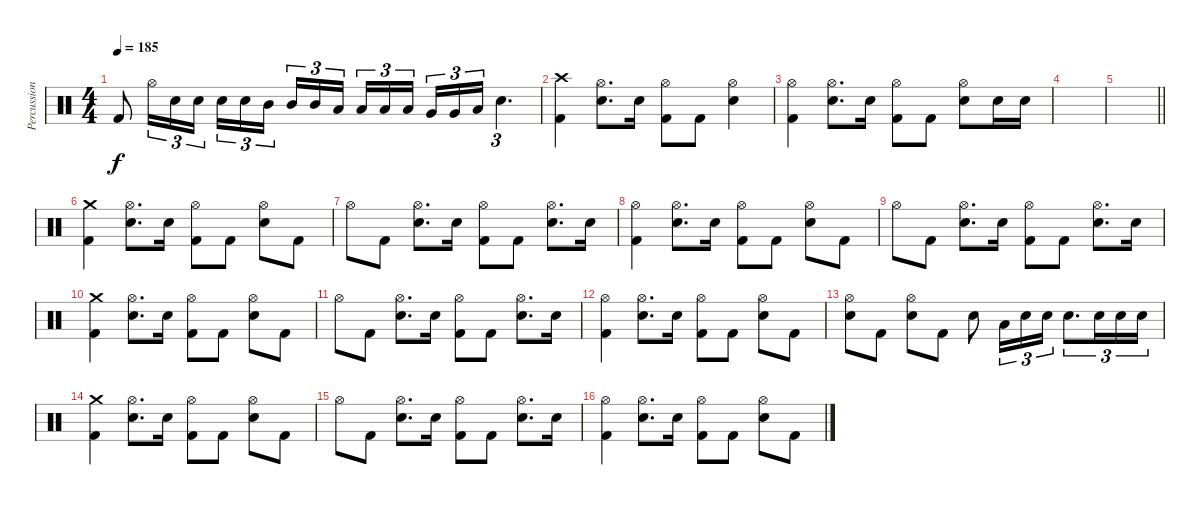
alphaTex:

\track ("Percussion" "Percussion") {instrument percussion}
\staff {score}
\articulation defaults
\ts (4 4)
\tempo 185
\clef neutral
\ks c "Kick (hit) 2".8{dy f} "Hi-Hat (open)".16{tu (3 2)} "Electric Snare (hit)".16{tu (3 2)} "Electric Snare (hit)".16{tu (3 2)} "Electric Snare (hit)".16{tu (3 2)} "Electric Snare (hit)".16{tu (3 2)} "Mid Tom (hit)".16{tu (3 2) beam splitsecondary} "Mid Tom (hit)".16{tu (3 2)} "Mid Tom (hit)".16{tu (3 2)} "Low Tom (hit)".16{tu (3 2)} "Low Tom (hit)".16{tu (3 2)} "Low Tom (hit)".16{tu (3 2)} "Low Tom (hit)".16{tu (3 2) beam splitsecondary} "Very Low Tom (hit)".16{tu (3 2)} "Very Low Tom (hit)".16{tu (3 2)} "Low Floor Tom (hit)".16{tu (3 2)} "Electric Snare (hit)".4{d tu (3 2)}
|
("Crash high (hit)" "Kick (hit) 2").4 ("Hi-Hat (open)" "Electric Snare (hit)").8{d} "Electric Snare (hit)".16 ("Hi-Hat (open)" "Kick (hit) 2").8 "Kick (hit) 2".8 ("Hi-Hat (open)" "Electric Snare (hit)").4 |
("Hi-Hat (open)" "Kick (hit) 2").4 ("Hi-Hat (open)" "Electric Snare (hit)").8{d} "Electric Snare (hit)".16 ("Hi-Hat (open)" "Kick (hit) 2").8 "Kick (hit) 2".8 ("Hi-Hat (open)" "Electric Snare (hit)").8 "Electric Snare (hit)".16 "Electric Snare (hit)".16 |
|
\barLineRight lightlight
|
("Crash medium (hit)" "Kick (hit) 2").4 ("Hi-Hat (open)" "Electric Snare (hit)").8{d} "Electric Snare (hit)".16 ("Hi-Hat (open)" "Kick (hit) 2").8 "Kick (hit) 2".8 ("Hi-Hat (open)" "Electric Snare (hit)").8 "Kick (hit) 2".8 |
"Hi-Hat (open)".8 "Kick (hit) 2".8 ("Hi-Hat (open)" "Electric Snare (hit)").8{d} "Electric Snare (hit)".16 ("Hi-Hat (open)" "Kick (hit) 2").8 "Kick (hit) 2".8 ("Hi-Hat (open)" "Electric Snare (hit)").8{d} "Electric Snare (hit)".16 |
("Hi-Hat (open)" "Kick (hit) 2").4 ("Hi-Hat (open)" "Electric Snare (hit)").8{d} "Electric Snare (hit)".16 ("Hi-Hat (open)" "Kick (hit) 2").8 "Kick (hit) 2".8 ("Hi-Hat (open)" "Electric Snare (hit)").8 "Kick (hit) 2".8 |
"Hi-Hat (open)".8 "Kick (hit) 2".8 ("Hi-Hat (open)" "Electric Snare (hit)").8{d} "Electric Snare (hit)".16 ("Hi-Hat (open)" "Kick (hit) 2").8 "Kick (hit) 2".8 ("Hi-Hat (open)" "Electric Snare (hit)").8{d} "Electric Snare (hit)".16 |
("Crash medium (hit)" "Kick (hit) 2").4 ("Hi-Hat (open)" "Electric Snare (hit)").8{d} "Electric Snare (hit)".16 ("Hi-Hat (open)" "Kick (hit) 2").8 "Kick (hit) 2".8 ("Hi-Hat (open)" "Electric Snare (hit)").8 "Kick (hit) 2".8 |
"Hi-Hat (open)".8 "Kick (hit) 2".8 ("Hi-Hat (open)" "Electric Snare (hit)").8{d} "Electric Snare (hit)".16 ("Hi-Hat (open)" "Kick (hit) 2").8 "Kick (hit) 2".8 ("Hi-Hat (open)" "Electric Snare (hit)").8{d} "Electric Snare (hit)".16 |
("Hi-Hat (open)" "Kick (hit) 2").4 ("Hi-Hat (open)" "Electric Snare (hit)").8{d} "Electric Snare (hit)".16 ("Hi-Hat (open)" "Kick (hit) 2").8 "Kick (hit) 2".8 ("Hi-Hat (open)" "Electric Snare (hit)").8 "Kick (hit) 2".8 |
("Hi-Hat (open)" "Electric Snare (hit)").8 "Kick (hit) 2".8 ("Hi-Hat (open)" "Electric Snare (hit)").8 "Kick (hit) 2".8 "Electric Snare (hit)".8 "Low Tom (hit)".16{tu (3 2)} "Electric Snare (hit)".16{tu (3 2)} "Electric Snare (hit)".16{tu (3 2)} "Electric Snare (hit)".8{d tu (3 2)} "Electric Snare (hit)".16{tu (3 2)} "Electric Snare (hit)".16{tu (3 2)} "Electric Snare (hit)".16{tu (3 2)} |
("Crash medium (hit)" "Kick (hit) 2").4 ("Hi-Hat (open)" "Electric Snare (hit)").8{d} "Electric Snare (hit)".16 ("Hi-Hat (open)" "Kick (hit) 2").8 "Kick (hit) 2".8 ("Hi-Hat (open)" "Electric Snare (hit)").8 "Kick (hit) 2".8 |
"Hi-Hat (open)".8 "Kick (hit) 2".8 ("Hi-Hat (open)" "Electric Snare (hit)").8{d} "Electric Snare (hit)".16 ("Hi-Hat (open)" "Kick (hit) 2").8 "Kick (hit) 2".8 ("Hi-Hat (open)" "Electric Snare (hit)").8{d} "Electric Snare (hit)".16 |
("Hi-Hat (open)" "Kick (hit) 2").4 ("Hi-Hat (open)" "Electric Snare (hit)").8{d} "Electric Snare (hit)".16 ("Hi-Hat (open)" "Kick (hit) 2").8 "Kick (hit) 2".8 ("Hi-Hat (open)" "Electric Snare (hit)").8 "Kick (hit) 2".8
